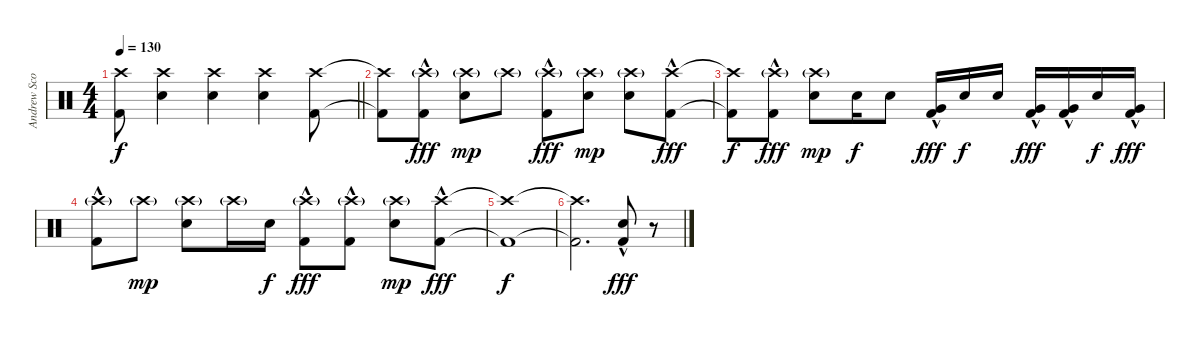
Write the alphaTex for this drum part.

\track ("Andrew Scott" "Andrew Sco") {instrument percussion}
\staff {score}
\articulation defaults
\ts (4 4)
\tempo 130
\clef neutral
\barLineRight lightlight
\ks c
("Crash high (hit)"{t} "Kick (hit) 2"{t}).8{dy f} ("Crash high (hit)" "Snare (hit) 2").4 ("Crash high (hit)" "Snare (hit) 2").4 ("Crash high (hit)" "Snare (hit) 2").4 ("Crash high (hit)" "Kick (hit) 2").8 |
("Crash high (hit)"{t} "Kick (hit) 2"{t}).8 ("Crash high (hit)"{g} "Kick (hit) 2"{hac}).8{dy fff} ("Crash high (hit)"{g} "Snare (hit) 2").8{dy mp} "Crash high (hit)"{g}.8 ("Crash high (hit)"{g} "Kick (hit) 2"{hac}).8{dy fff} ("Crash high (hit)"{g} "Snare (hit) 2").8{dy mp} ("Crash high (hit)"{g} "Snare (hit) 2").8 ("Crash high (hit)" "Kick (hit) 2"{hac}).8{dy fff} |
("Crash high (hit)"{t} "Kick (hit) 2"{t}).8{dy f} ("Crash high (hit)"{g} "Kick (hit) 2"{hac}).8{dy fff} ("Crash high (hit)"{g} "Snare (hit) 2").8{dy mp} "Snare (hit) 2".16{dy f} "Snare (hit) 2".8 ("Very Low Tom (hit)"{hac} "Kick (hit) 2"{hac}).16{dy fff} "Snare (hit) 2".16{dy f} "Snare (hit) 2".16 ("Very Low Tom (hit)"{hac} "Kick (hit) 2"{hac}).16{dy fff} ("Very Low Tom (hit)"{hac} "Kick (hit) 2"{hac}).16 "Snare (hit) 2".16{dy f} ("Very Low Tom (hit)"{hac} "Kick (hit) 2"{hac}).16{dy fff} |
("Crash high (hit)"{g} "Kick (hit) 2"{hac}).8 "Crash high (hit)"{g}.8{dy mp} ("Crash high (hit)"{g} "Snare (hit) 2").8 "Crash high (hit)"{g}.16 "Snare (hit) 2".16{dy f} ("Crash high (hit)"{g} "Kick (hit) 2"{hac}).8{dy fff} ("Crash high (hit)"{g} "Kick (hit) 2"{hac}).8 ("Crash high (hit)"{g} "Snare (hit) 2").8{dy mp} ("Crash high (hit)" "Kick (hit) 2"{hac}).8{dy fff} |
("Crash high (hit)"{t} "Kick (hit) 2"{t}).1{dy f} |
("Crash high (hit)"{t} "Kick (hit) 2"{t}).2{d} ("Snare (hit) 2" "Kick (hit) 2"{hac}).8{dy fff} r.8
